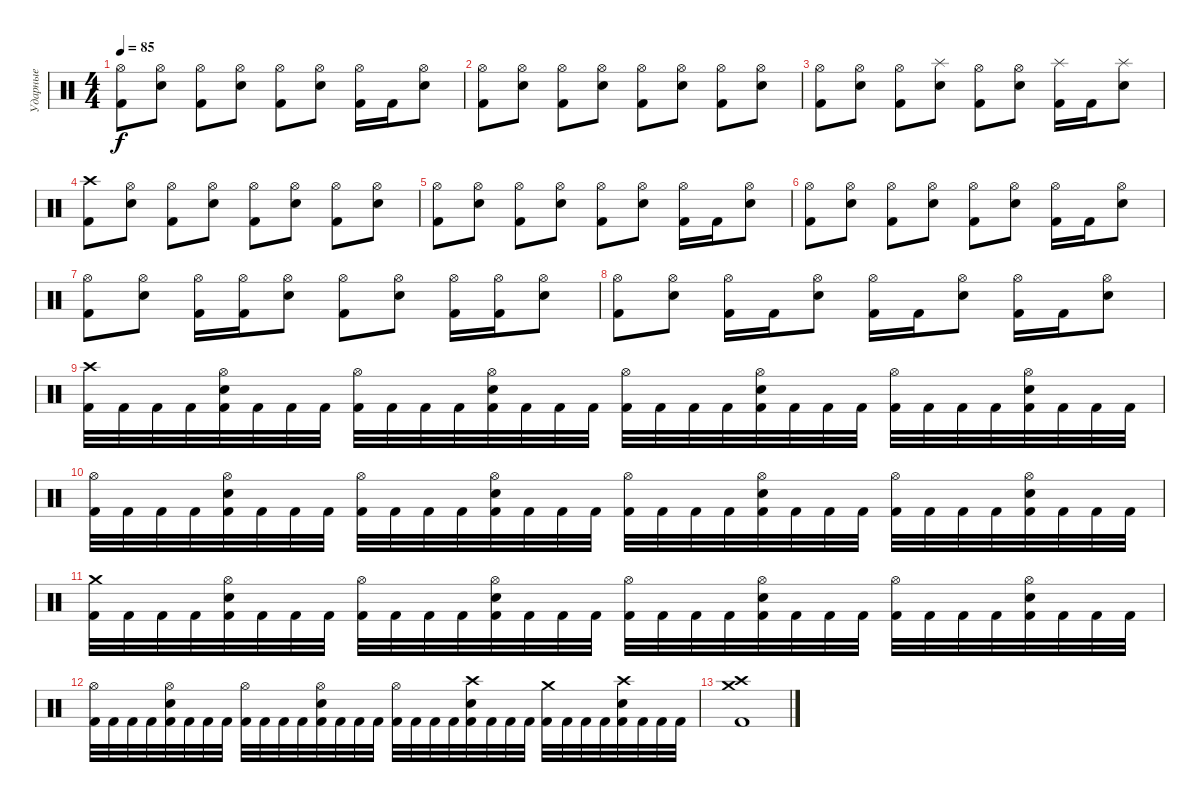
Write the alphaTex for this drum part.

\track ("Ударные" "Ударные") {instrument percussion}
\staff {score}
\articulation defaults
\ts (4 4)
\tempo 85
\clef neutral
\ks c
("Hi-Hat (open)" "Kick (hit) 2").8{dy f} ("Hi-Hat (open)" "Snare (hit) 2").8 ("Hi-Hat (open)" "Kick (hit) 2").8 ("Hi-Hat (open)" "Snare (hit) 2").8 ("Hi-Hat (open)" "Kick (hit) 2").8 ("Hi-Hat (open)" "Snare (hit) 2").8 ("Hi-Hat (open)" "Kick (hit) 2").16 "Kick (hit) 2".16 ("Hi-Hat (open)" "Snare (hit) 2").8 |
("Hi-Hat (open)" "Kick (hit) 2").8 ("Hi-Hat (open)" "Snare (hit) 2").8 ("Hi-Hat (open)" "Kick (hit) 2").8 ("Hi-Hat (open)" "Snare (hit) 2").8 ("Hi-Hat (open)" "Kick (hit) 2").8 ("Hi-Hat (open)" "Snare (hit) 2").8 ("Hi-Hat (open)" "Kick (hit) 2").8 ("Hi-Hat (open)" "Snare (hit) 2").8 |
("Hi-Hat (open)" "Kick (hit) 2").8 ("Hi-Hat (open)" "Snare (hit) 2").8 ("Hi-Hat (open)" "Kick (hit) 2").8 ("Splash (hit)" "Snare (hit) 2").8 ("Hi-Hat (open)" "Kick (hit) 2").8 ("Hi-Hat (open)" "Snare (hit) 2").8 ("Splash (hit)" "Kick (hit) 2").16 "Kick (hit) 2".16 ("Splash (hit)" "Snare (hit) 2").8 |
("Crash high (hit)" "Kick (hit) 2").8 ("Hi-Hat (open)" "Snare (hit) 2").8 ("Hi-Hat (open)" "Kick (hit) 2").8 ("Hi-Hat (open)" "Snare (hit) 2").8 ("Hi-Hat (open)" "Kick (hit) 2").8 ("Hi-Hat (open)" "Snare (hit) 2").8 ("Hi-Hat (open)" "Kick (hit) 2").8 ("Hi-Hat (open)" "Snare (hit) 2").8 |
("Hi-Hat (open)" "Kick (hit) 2").8 ("Hi-Hat (open)" "Snare (hit) 2").8 ("Hi-Hat (open)" "Kick (hit) 2").8 ("Hi-Hat (open)" "Snare (hit) 2").8 ("Hi-Hat (open)" "Kick (hit) 2").8 ("Hi-Hat (open)" "Snare (hit) 2").8 ("Hi-Hat (open)" "Kick (hit) 2").16 "Kick (hit) 2".16 ("Hi-Hat (open)" "Snare (hit) 2").8 |
("Hi-Hat (open)" "Kick (hit) 2").8 ("Hi-Hat (open)" "Snare (hit) 2").8 ("Hi-Hat (open)" "Kick (hit) 2").8 ("Hi-Hat (open)" "Snare (hit) 2").8 ("Hi-Hat (open)" "Kick (hit) 2").8 ("Hi-Hat (open)" "Snare (hit) 2").8 ("Hi-Hat (open)" "Kick (hit) 2").16 "Kick (hit) 2".16 ("Hi-Hat (open)" "Snare (hit) 2").8 |
("Hi-Hat (open)" "Kick (hit) 2").8 ("Hi-Hat (open)" "Snare (hit) 2").8 ("Hi-Hat (open)" "Kick (hit) 2").16 ("Hi-Hat (open)" "Kick (hit) 2").16 ("Hi-Hat (open)" "Snare (hit) 2").8 ("Hi-Hat (open)" "Kick (hit) 2").8 ("Hi-Hat (open)" "Snare (hit) 2").8 ("Hi-Hat (open)" "Kick (hit) 2").16 ("Hi-Hat (open)" "Kick (hit) 2").16 ("Hi-Hat (open)" "Snare (hit) 2").8 |
("Hi-Hat (open)" "Kick (hit) 2").8 ("Hi-Hat (open)" "Snare (hit) 2").8 ("Hi-Hat (open)" "Kick (hit) 2").16 "Kick (hit) 2".16 ("Hi-Hat (open)" "Snare (hit) 2").8 ("Hi-Hat (open)" "Kick (hit) 2").16 "Kick (hit) 2".16 ("Hi-Hat (open)" "Snare (hit) 2").8 ("Hi-Hat (open)" "Kick (hit) 2").16 "Kick (hit) 2".16 ("Hi-Hat (open)" "Snare (hit) 2").8 |
("Crash high (hit)" "Kick (hit) 2").32 "Kick (hit) 2".32 "Kick (hit) 2".32 "Kick (hit) 2".32 ("Hi-Hat (open)" "Snare (hit) 2" "Kick (hit) 2").32 "Kick (hit) 2".32 "Kick (hit) 2".32 "Kick (hit) 2".32 ("Hi-Hat (open)" "Kick (hit) 2").32 "Kick (hit) 2".32 "Kick (hit) 2".32 "Kick (hit) 2".32 ("Hi-Hat (open)" "Snare (hit) 2" "Kick (hit) 2").32 "Kick (hit) 2".32 "Kick (hit) 2".32 "Kick (hit) 2".32 ("Hi-Hat (open)" "Kick (hit) 2").32 "Kick (hit) 2".32 "Kick (hit) 2".32 "Kick (hit) 2".32 ("Hi-Hat (open)" "Snare (hit) 2" "Kick (hit) 2").32 "Kick (hit) 2".32 "Kick (hit) 2".32 "Kick (hit) 2".32 ("Hi-Hat (open)" "Kick (hit) 2").32 "Kick (hit) 2".32 "Kick (hit) 2".32 "Kick (hit) 2".32 ("Hi-Hat (open)" "Snare (hit) 2" "Kick (hit) 2").32 "Kick (hit) 2".32 "Kick (hit) 2".32 "Kick (hit) 2".32 |
("Hi-Hat (open)" "Kick (hit) 2").32 "Kick (hit) 2".32 "Kick (hit) 2".32 "Kick (hit) 2".32 ("Hi-Hat (open)" "Snare (hit) 2" "Kick (hit) 2").32 "Kick (hit) 2".32 "Kick (hit) 2".32 "Kick (hit) 2".32 ("Hi-Hat (open)" "Kick (hit) 2").32 "Kick (hit) 2".32 "Kick (hit) 2".32 "Kick (hit) 2".32 ("Hi-Hat (open)" "Snare (hit) 2" "Kick (hit) 2").32 "Kick (hit) 2".32 "Kick (hit) 2".32 "Kick (hit) 2".32 ("Hi-Hat (open)" "Kick (hit) 2").32 "Kick (hit) 2".32 "Kick (hit) 2".32 "Kick (hit) 2".32 ("Hi-Hat (open)" "Snare (hit) 2" "Kick (hit) 2").32 "Kick (hit) 2".32 "Kick (hit) 2".32 "Kick (hit) 2".32 ("Hi-Hat (open)" "Kick (hit) 2").32 "Kick (hit) 2".32 "Kick (hit) 2".32 "Kick (hit) 2".32 ("Hi-Hat (open)" "Snare (hit) 2" "Kick (hit) 2").32 "Kick (hit) 2".32 "Kick (hit) 2".32 "Kick (hit) 2".32 |
("Crash medium (hit)" "Kick (hit) 2").32 "Kick (hit) 2".32 "Kick (hit) 2".32 "Kick (hit) 2".32 ("Hi-Hat (open)" "Snare (hit) 2" "Kick (hit) 2").32 "Kick (hit) 2".32 "Kick (hit) 2".32 "Kick (hit) 2".32 ("Hi-Hat (open)" "Kick (hit) 2").32 "Kick (hit) 2".32 "Kick (hit) 2".32 "Kick (hit) 2".32 ("Hi-Hat (open)" "Snare (hit) 2" "Kick (hit) 2").32 "Kick (hit) 2".32 "Kick (hit) 2".32 "Kick (hit) 2".32 ("Hi-Hat (open)" "Kick (hit) 2").32 "Kick (hit) 2".32 "Kick (hit) 2".32 "Kick (hit) 2".32 ("Hi-Hat (open)" "Snare (hit) 2" "Kick (hit) 2").32 "Kick (hit) 2".32 "Kick (hit) 2".32 "Kick (hit) 2".32 ("Hi-Hat (open)" "Kick (hit) 2").32 "Kick (hit) 2".32 "Kick (hit) 2".32 "Kick (hit) 2".32 ("Hi-Hat (open)" "Snare (hit) 2" "Kick (hit) 2").32 "Kick (hit) 2".32 "Kick (hit) 2".32 "Kick (hit) 2".32 |
("Hi-Hat (open)" "Kick (hit) 2").32 "Kick (hit) 2".32 "Kick (hit) 2".32 "Kick (hit) 2".32 ("Hi-Hat (open)" "Snare (hit) 2" "Kick (hit) 2").32 "Kick (hit) 2".32 "Kick (hit) 2".32 "Kick (hit) 2".32 ("Hi-Hat (open)" "Kick (hit) 2").32 "Kick (hit) 2".32 "Kick (hit) 2".32 "Kick (hit) 2".32 ("Hi-Hat (open)" "Snare (hit) 2" "Kick (hit) 2").32 "Kick (hit) 2".32 "Kick (hit) 2".32 "Kick (hit) 2".32 ("Hi-Hat (open)" "Kick (hit) 2").32 "Kick (hit) 2".32 "Kick (hit) 2".32 "Kick (hit) 2".32 ("Crash high (hit)" "Snare (hit) 2" "Kick (hit) 2").32 "Kick (hit) 2".32 "Kick (hit) 2".32 "Kick (hit) 2".32 ("Crash medium (hit)" "Kick (hit) 2").32 "Kick (hit) 2".32 "Kick (hit) 2".32 "Kick (hit) 2".32 ("Crash high (hit)" "Snare (hit) 2" "Kick (hit) 2").32 "Kick (hit) 2".32 "Kick (hit) 2".32 "Kick (hit) 2".32 |
("Crash high (hit)" "Crash medium (hit)" "Kick (hit) 2").1
